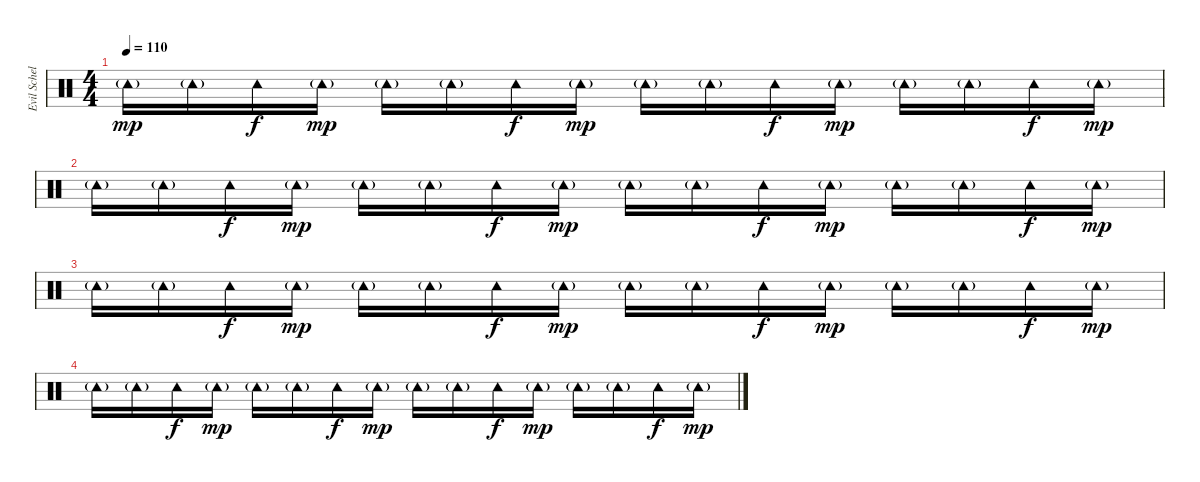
\track ("Evil Schellenkranz" "Evil Schel") {instrument percussion}
\staff {score}
\articulation defaults
\ts (4 4)
\tempo 110
\clef neutral
\ks c "Tambourine (hit)"{g}.16{dy mp} "Tambourine (hit)"{g}.16 "Tambourine (hit)".16{dy f} "Tambourine (hit)"{g}.16{dy mp} "Tambourine (hit)"{g}.16 "Tambourine (hit)"{g}.16 "Tambourine (hit)".16{dy f} "Tambourine (hit)"{g}.16{dy mp} "Tambourine (hit)"{g}.16 "Tambourine (hit)"{g}.16 "Tambourine (hit)".16{dy f} "Tambourine (hit)"{g}.16{dy mp} "Tambourine (hit)"{g}.16 "Tambourine (hit)"{g}.16 "Tambourine (hit)".16{dy f} "Tambourine (hit)"{g}.16{dy mp}
|
"Tambourine (hit)"{g}.16 "Tambourine (hit)"{g}.16 "Tambourine (hit)".16{dy f} "Tambourine (hit)"{g}.16{dy mp} "Tambourine (hit)"{g}.16 "Tambourine (hit)"{g}.16 "Tambourine (hit)".16{dy f} "Tambourine (hit)"{g}.16{dy mp} "Tambourine (hit)"{g}.16 "Tambourine (hit)"{g}.16 "Tambourine (hit)".16{dy f} "Tambourine (hit)"{g}.16{dy mp} "Tambourine (hit)"{g}.16 "Tambourine (hit)"{g}.16 "Tambourine (hit)".16{dy f} "Tambourine (hit)"{g}.16{dy mp} |
"Tambourine (hit)"{g}.16 "Tambourine (hit)"{g}.16 "Tambourine (hit)".16{dy f} "Tambourine (hit)"{g}.16{dy mp} "Tambourine (hit)"{g}.16 "Tambourine (hit)"{g}.16 "Tambourine (hit)".16{dy f} "Tambourine (hit)"{g}.16{dy mp} "Tambourine (hit)"{g}.16 "Tambourine (hit)"{g}.16 "Tambourine (hit)".16{dy f} "Tambourine (hit)"{g}.16{dy mp} "Tambourine (hit)"{g}.16 "Tambourine (hit)"{g}.16 "Tambourine (hit)".16{dy f} "Tambourine (hit)"{g}.16{dy mp} |
"Tambourine (hit)"{g}.16 "Tambourine (hit)"{g}.16 "Tambourine (hit)".16{dy f} "Tambourine (hit)"{g}.16{dy mp} "Tambourine (hit)"{g}.16 "Tambourine (hit)"{g}.16 "Tambourine (hit)".16{dy f} "Tambourine (hit)"{g}.16{dy mp} "Tambourine (hit)"{g}.16 "Tambourine (hit)"{g}.16 "Tambourine (hit)".16{dy f} "Tambourine (hit)"{g}.16{dy mp} "Tambourine (hit)"{g}.16 "Tambourine (hit)"{g}.16 "Tambourine (hit)".16{dy f} "Tambourine (hit)"{g}.16{dy mp}
